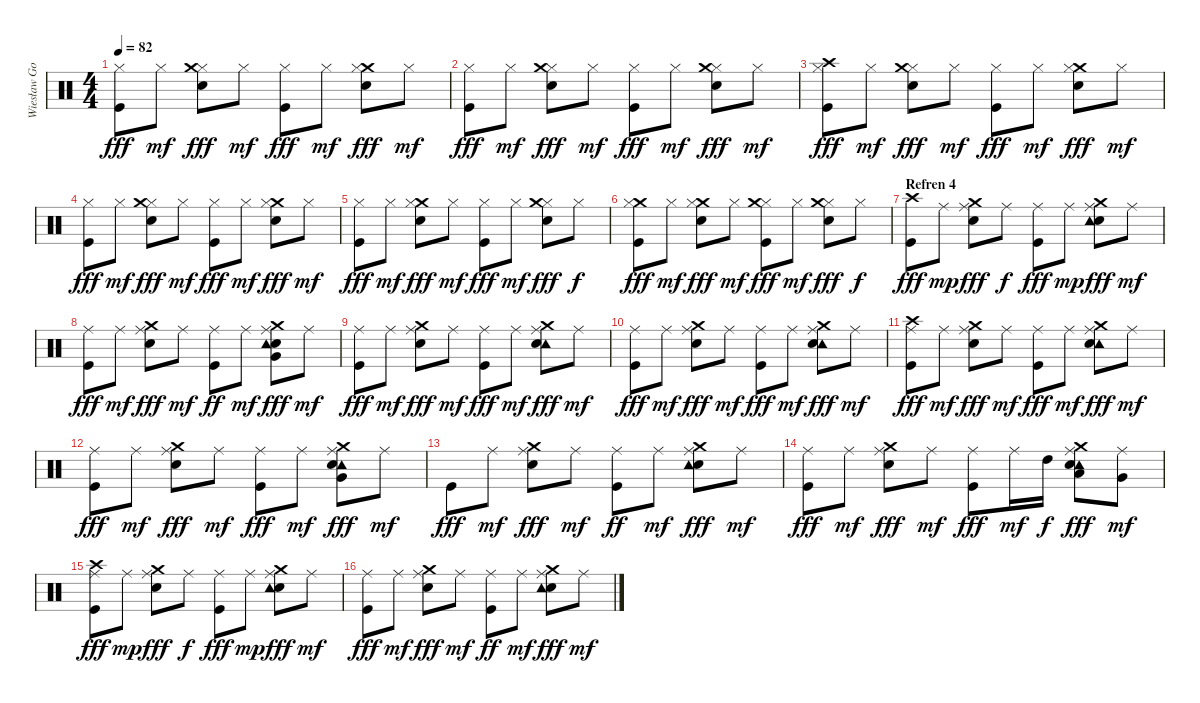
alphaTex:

\track ("Wiesław Gola" "Wiesław Go") {instrument percussion}
\staff {score}
\articulation defaults
\ts (4 4)
\tempo 82
\clef neutral
\ks c
("Hi-Hat (closed)" "Kick (hit)").8{dy fff} "Hi-Hat (closed)".8{dy mf} ("Hi-Hat (closed)" "Crash medium (hit)" "Snare (hit) 2").8{dy fff} "Hi-Hat (closed)".8{dy mf} ("Kick (hit)" "Hi-Hat (closed)").8{dy fff} "Hi-Hat (closed)".8{dy mf} ("Crash medium (hit)" "Snare (hit) 2" "Hi-Hat (closed)").8{dy fff} "Hi-Hat (closed)".8{dy mf} |
("Hi-Hat (closed)" "Kick (hit)").8{dy fff} "Hi-Hat (closed)".8{dy mf} ("Hi-Hat (closed)" "Crash medium (hit)" "Snare (hit) 2").8{dy fff} "Hi-Hat (closed)".8{dy mf} ("Hi-Hat (closed)" "Kick (hit)").8{dy fff} "Hi-Hat (closed)".8{dy mf} ("Hi-Hat (closed)" "Crash medium (hit)" "Snare (hit) 2").8{dy fff} "Hi-Hat (closed)".8{dy mf} |
("Crash high (hit)" "Kick (hit)" "Hi-Hat (closed)").8{dy fff} "Hi-Hat (closed)".8{dy mf} ("Hi-Hat (closed)" "Crash medium (hit)" "Snare (hit) 2").8{dy fff} "Hi-Hat (closed)".8{dy mf} ("Hi-Hat (closed)" "Kick (hit)").8{dy fff} "Hi-Hat (closed)".8{dy mf} ("Crash medium (hit)" "Snare (hit) 2" "Hi-Hat (closed)").8{dy fff} "Hi-Hat (closed)".8{dy mf} |
("Kick (hit)" "Hi-Hat (closed)").8{dy fff} "Hi-Hat (closed)".8{dy mf} ("Hi-Hat (closed)" "Crash medium (hit)" "Snare (hit) 2").8{dy fff} "Hi-Hat (closed)".8{dy mf} ("Kick (hit)" "Hi-Hat (closed)").8{dy fff} "Hi-Hat (closed)".8{dy mf} ("Crash medium (hit)" "Snare (hit) 2" "Hi-Hat (closed)").8{dy fff} "Hi-Hat (closed)".8{dy mf} |
("Kick (hit)" "Hi-Hat (closed)").8{dy fff} "Hi-Hat (closed)".8{dy mf} ("Crash medium (hit)" "Snare (hit) 2" "Hi-Hat (closed)").8{dy fff} "Hi-Hat (closed)".8{dy mf} ("Hi-Hat (closed)" "Kick (hit)").8{dy fff} "Hi-Hat (closed)".8{dy mf} ("Hi-Hat (closed)" "Crash medium (hit)" "Snare (hit) 2").8{dy fff} "Hi-Hat (closed)".8{dy f} |
("Crash medium (hit)" "Kick (hit)" "Hi-Hat (closed)").8{dy fff} "Hi-Hat (closed)".8{dy mf} ("Crash medium (hit)" "Snare (hit) 2" "Hi-Hat (closed)").8{dy fff} "Hi-Hat (closed)".8{dy mf} ("Hi-Hat (closed)" "Crash medium (hit)" "Kick (hit)").8{dy fff} "Hi-Hat (closed)".8{dy mf} ("Hi-Hat (closed)" "Crash medium (hit)" "Snare (hit) 2").8{dy fff} "Hi-Hat (closed)".8{dy f} |
\section ("" "Refren 4")
("Crash high (hit)" "Kick (hit)").8{dy fff} "Ride (middle)".8{dy mp} ("Snare (hit) 2" "Ride (middle)" "Crash medium (hit)").8{dy fff} "Ride (middle)".8{dy f} ("Kick (hit)" "Ride (middle)").8{dy fff} "Ride (middle)".8{dy mp} ("Snare (hit) 2" "Crash medium (hit)" "Tambourine (hit)" "Ride (middle)").8{dy fff} "Ride (middle)".8{dy mf} |
("Kick (hit)" "Ride (middle)").8{dy fff} "Ride (middle)".8{dy mf} ("Snare (hit) 2" "Ride (middle)" "Crash medium (hit)").8{dy fff} "Ride (middle)".8{dy mf} ("Kick (hit)" "Ride (middle)").8{dy ff} "Ride (middle)".8{dy mf} ("Snare (hit) 2" "Ride (middle)" "Crash medium (hit)" "Very Low Tom (hit)" "Tambourine (hit)").8{dy fff} "Ride (middle)".8{dy mf} |
("Ride (middle)" "Kick (hit)").8{dy fff} "Ride (middle)".8{dy mf} ("Ride (middle)" "Crash medium (hit)" "Snare (hit) 2").8{dy fff} "Ride (middle)".8{dy mf} ("Kick (hit)" "Ride (middle)").8{dy fff} "Ride (middle)".8{dy mf} ("Crash medium (hit)" "Tambourine (hit)" "Snare (hit) 2" "Ride (middle)").8{dy fff} "Ride (middle)".8{dy mf} |
("Ride (middle)" "Kick (hit)").8{dy fff} "Ride (middle)".8{dy mf} ("Ride (middle)" "Crash medium (hit)" "Snare (hit) 2").8{dy fff} "Ride (middle)".8{dy mf} ("Ride (middle)" "Kick (hit)").8{dy fff} "Ride (middle)".8{dy mf} ("Ride (middle)" "Crash medium (hit)" "Tambourine (hit)" "Snare (hit) 2").8{dy fff} "Ride (middle)".8{dy mf} |
("Crash high (hit)" "Kick (hit)" "Ride (middle)").8{dy fff} "Ride (middle)".8{dy mf} ("Ride (middle)" "Crash medium (hit)" "Snare (hit) 2").8{dy fff} "Ride (middle)".8{dy mf} ("Ride (middle)" "Kick (hit)").8{dy fff} "Ride (middle)".8{dy mf} ("Crash medium (hit)" "Tambourine (hit)" "Snare (hit) 2" "Ride (middle)").8{dy fff} "Ride (middle)".8{dy mf} |
("Ride (middle)" "Kick (hit)").8{dy fff} "Ride (middle)".8{dy mf} ("Ride (middle)" "Crash medium (hit)" "Snare (hit) 2").8{dy fff} "Ride (middle)".8{dy mf} ("Kick (hit)" "Ride (middle)").8{dy fff} "Ride (middle)".8{dy mf} ("Very Low Tom (hit)" "Crash medium (hit)" "Tambourine (hit)" "Snare (hit) 2" "Ride (middle)").8{dy fff} "Ride (middle)".8{dy mf} |
"Kick (hit)".8{dy fff} "Ride (middle)".8{dy mf} ("Snare (hit) 2" "Ride (middle)" "Crash medium (hit)").8{dy fff} "Ride (middle)".8{dy mf} ("Kick (hit)" "Ride (middle)").8{dy ff} "Ride (middle)".8{dy mf} ("Snare (hit) 2" "Ride (middle)" "Crash medium (hit)" "Tambourine (hit)").8{dy fff} "Ride (middle)".8{dy mf} |
("Ride (middle)" "Kick (hit)").8{dy fff} "Ride (middle)".8{dy mf} ("Ride (middle)" "Crash medium (hit)" "Snare (hit) 2").8{dy fff} "Ride (middle)".8{dy mf} ("Kick (hit)" "Ride (middle)").8{dy fff} "Ride (middle)".16{dy mf} "High Tom (hit)".16{dy f} ("Low Tom (hit)" "Crash medium (hit)" "Tambourine (hit)" "Snare (hit) 2" "Ride (middle)").8{dy fff} ("Ride (middle)" "Very Low Tom (hit)").8{dy mf} |
("Ride (middle)" "Crash high (hit)" "Kick (hit)").8{dy fff} "Ride (middle)".8{dy mp} ("Snare (hit) 2" "Ride (middle)" "Crash medium (hit)").8{dy fff} "Ride (middle)".8{dy f} ("Kick (hit)" "Ride (middle)").8{dy fff} "Ride (middle)".8{dy mp} ("Snare (hit) 2" "Crash medium (hit)" "Tambourine (hit)" "Ride (middle)").8{dy fff} "Ride (middle)".8{dy mf} |
("Kick (hit)" "Ride (middle)").8{dy fff} "Ride (middle)".8{dy mf} ("Snare (hit) 2" "Ride (middle)" "Crash medium (hit)").8{dy fff} "Ride (middle)".8{dy mf} ("Kick (hit)" "Ride (middle)").8{dy ff} "Ride (middle)".8{dy mf} ("Snare (hit) 2" "Ride (middle)" "Crash medium (hit)" "Tambourine (hit)").8{dy fff} "Ride (middle)".8{dy mf}
